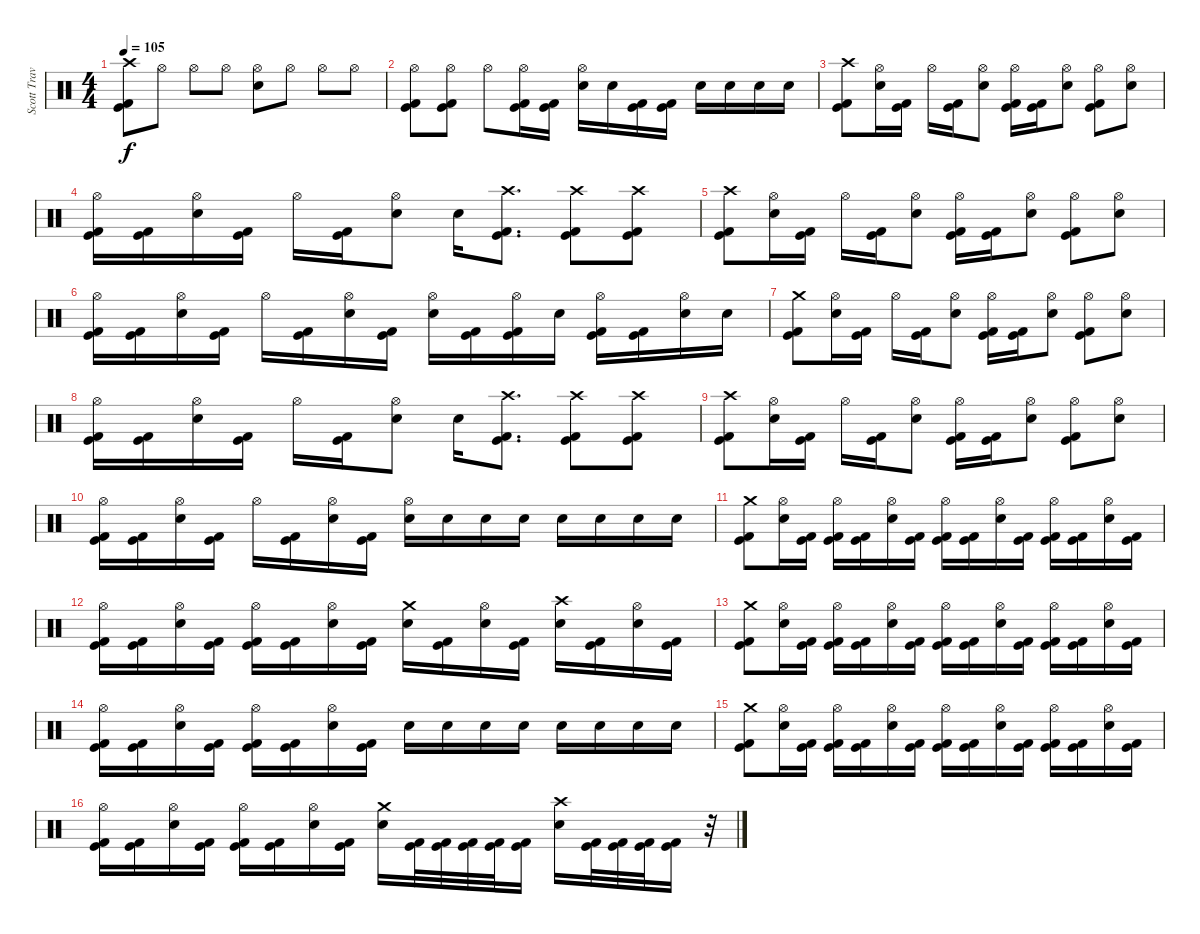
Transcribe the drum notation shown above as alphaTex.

\track ("Scott Travis" "Scott Trav") {instrument percussion}
\staff {score}
\articulation defaults
\ts (4 4)
\tempo 105
\clef neutral
\ks c
("Crash high (hit)" "Kick (hit)" "Kick (hit) 2").8{dy f} "Hi-Hat (open)".8 "Hi-Hat (open)".8 "Hi-Hat (open)".8 ("Hi-Hat (open)" "Snare (hit) 2").8 "Hi-Hat (open)".8 "Hi-Hat (open)".8 "Hi-Hat (open)".8 |
("Hi-Hat (open)" "Kick (hit)" "Kick (hit) 2").8 ("Hi-Hat (open)" "Kick (hit)" "Kick (hit) 2").8 "Hi-Hat (open)".8 ("Hi-Hat (open)" "Kick (hit)" "Kick (hit) 2").16 ("Kick (hit)" "Kick (hit) 2").16 ("Hi-Hat (open)" "Snare (hit) 2").16 "Snare (hit) 2".16 ("Kick (hit)" "Kick (hit) 2").16 ("Kick (hit)" "Kick (hit) 2").16 "Snare (hit) 2".16 "Snare (hit) 2".16 "Snare (hit) 2".16 "Snare (hit) 2".16 |
("Crash high (hit)" "Kick (hit) 2" "Kick (hit)").8 ("Hi-Hat (open)" "Snare (hit) 2").16 ("Kick (hit) 2" "Kick (hit)").16 "Hi-Hat (open)".16 ("Kick (hit) 2" "Kick (hit)").16 ("Hi-Hat (open)" "Snare (hit) 2").8 ("Hi-Hat (open)" "Kick (hit) 2" "Kick (hit)").16 ("Kick (hit) 2" "Kick (hit)").16 ("Hi-Hat (open)" "Snare (hit) 2").8 ("Hi-Hat (open)" "Kick (hit) 2" "Kick (hit)").8 ("Hi-Hat (open)" "Snare (hit) 2").8 |
("Hi-Hat (open)" "Kick (hit) 2" "Kick (hit)").16 ("Kick (hit) 2" "Kick (hit)").16 ("Hi-Hat (open)" "Snare (hit) 2").16 ("Kick (hit) 2" "Kick (hit)").16 "Hi-Hat (open)".16 ("Kick (hit) 2" "Kick (hit)").16 ("Hi-Hat (open)" "Snare (hit) 2").8 "Snare (hit) 2".16 ("Crash high (hit)" "Kick (hit)" "Kick (hit) 2").8{d} ("Crash high (hit)" "Kick (hit) 2" "Kick (hit)").8 ("Crash high (hit)" "Kick (hit)" "Kick (hit) 2").8 |
("Crash high (hit)" "Kick (hit) 2" "Kick (hit)").8 ("Hi-Hat (open)" "Snare (hit) 2").16 ("Kick (hit) 2" "Kick (hit)").16 "Hi-Hat (open)".16 ("Kick (hit) 2" "Kick (hit)").16 ("Hi-Hat (open)" "Snare (hit) 2").8 ("Hi-Hat (open)" "Kick (hit) 2" "Kick (hit)").16 ("Kick (hit) 2" "Kick (hit)").16 ("Hi-Hat (open)" "Snare (hit) 2").8 ("Hi-Hat (open)" "Kick (hit) 2" "Kick (hit)").8 ("Hi-Hat (open)" "Snare (hit) 2").8 |
("Hi-Hat (open)" "Kick (hit) 2" "Kick (hit)").16 ("Kick (hit) 2" "Kick (hit)").16 ("Hi-Hat (open)" "Snare (hit) 2").16 ("Kick (hit) 2" "Kick (hit)").16 "Hi-Hat (open)".16 ("Kick (hit) 2" "Kick (hit)").16 ("Hi-Hat (open)" "Snare (hit) 2").16 ("Kick (hit)" "Kick (hit) 2").16 ("Hi-Hat (open)" "Snare (hit) 2").16 ("Kick (hit) 2" "Kick (hit)").16 ("Hi-Hat (open)" "Kick (hit) 2" "Kick (hit)").16 "Snare (hit) 2".16 ("Hi-Hat (open)" "Kick (hit) 2" "Kick (hit)").16 ("Kick (hit) 2" "Kick (hit)").16 ("Hi-Hat (open)" "Snare (hit) 2").16 "Snare (hit) 2".16 |
("Crash medium (hit)" "Kick (hit) 2" "Kick (hit)").8 ("Hi-Hat (open)" "Snare (hit) 2").16 ("Kick (hit) 2" "Kick (hit)").16 "Hi-Hat (open)".16 ("Kick (hit) 2" "Kick (hit)").16 ("Hi-Hat (open)" "Snare (hit) 2").8 ("Hi-Hat (open)" "Kick (hit) 2" "Kick (hit)").16 ("Kick (hit) 2" "Kick (hit)").16 ("Hi-Hat (open)" "Snare (hit) 2").8 ("Hi-Hat (open)" "Kick (hit) 2" "Kick (hit)").8 ("Hi-Hat (open)" "Snare (hit) 2").8 |
("Hi-Hat (open)" "Kick (hit) 2" "Kick (hit)").16 ("Kick (hit) 2" "Kick (hit)").16 ("Hi-Hat (open)" "Snare (hit) 2").16 ("Kick (hit) 2" "Kick (hit)").16 "Hi-Hat (open)".16 ("Kick (hit) 2" "Kick (hit)").16 ("Hi-Hat (open)" "Snare (hit) 2").8 "Snare (hit) 2".16 ("Crash high (hit)" "Kick (hit)" "Kick (hit) 2").8{d} ("Crash high (hit)" "Kick (hit) 2" "Kick (hit)").8 ("Crash high (hit)" "Kick (hit)" "Kick (hit) 2").8 |
("Crash high (hit)" "Kick (hit) 2" "Kick (hit)").8 ("Hi-Hat (open)" "Snare (hit) 2").16 ("Kick (hit) 2" "Kick (hit)").16 "Hi-Hat (open)".16 ("Kick (hit) 2" "Kick (hit)").16 ("Hi-Hat (open)" "Snare (hit) 2").8 ("Hi-Hat (open)" "Kick (hit) 2" "Kick (hit)").16 ("Kick (hit) 2" "Kick (hit)").16 ("Hi-Hat (open)" "Snare (hit) 2").8 ("Hi-Hat (open)" "Kick (hit) 2" "Kick (hit)").8 ("Hi-Hat (open)" "Snare (hit) 2").8 |
("Hi-Hat (open)" "Kick (hit) 2" "Kick (hit)").16 ("Kick (hit) 2" "Kick (hit)").16 ("Hi-Hat (open)" "Snare (hit) 2").16 ("Kick (hit) 2" "Kick (hit)").16 "Hi-Hat (open)".16 ("Kick (hit) 2" "Kick (hit)").16 ("Hi-Hat (open)" "Snare (hit) 2").16 ("Kick (hit)" "Kick (hit) 2").16 ("Hi-Hat (open)" "Snare (hit) 2").16 "Snare (hit) 2".16 "Snare (hit) 2".16 "Snare (hit) 2".16 "Snare (hit) 2".16 "Snare (hit) 2".16 "Snare (hit) 2".16 "Snare (hit) 2".16 |
("Crash medium (hit)" "Kick (hit)" "Kick (hit) 2").8 ("Hi-Hat (open)" "Snare (hit) 2").16 ("Kick (hit) 2" "Kick (hit)").16 ("Hi-Hat (open)" "Kick (hit) 2" "Kick (hit)").16 ("Kick (hit) 2" "Kick (hit)").16 ("Hi-Hat (open)" "Snare (hit) 2").16 ("Kick (hit) 2" "Kick (hit)").16 ("Hi-Hat (open)" "Kick (hit) 2" "Kick (hit)").16 ("Kick (hit) 2" "Kick (hit)").16 ("Hi-Hat (open)" "Snare (hit) 2").16 ("Kick (hit) 2" "Kick (hit)").16 ("Hi-Hat (open)" "Kick (hit) 2" "Kick (hit)").16 ("Kick (hit) 2" "Kick (hit)").16 ("Hi-Hat (open)" "Snare (hit) 2").16 ("Kick (hit) 2" "Kick (hit)").16 |
("Hi-Hat (open)" "Kick (hit) 2" "Kick (hit)").16 ("Kick (hit) 2" "Kick (hit)").16 ("Hi-Hat (open)" "Snare (hit) 2").16 ("Kick (hit) 2" "Kick (hit)").16 ("Hi-Hat (open)" "Kick (hit) 2" "Kick (hit)").16 ("Kick (hit) 2" "Kick (hit)").16 ("Hi-Hat (open)" "Snare (hit) 2").16 ("Kick (hit) 2" "Kick (hit)").16 ("Crash medium (hit)" "Snare (hit) 2").16 ("Kick (hit) 2" "Kick (hit)").16 ("Hi-Hat (open)" "Snare (hit) 2").16 ("Kick (hit) 2" "Kick (hit)").16 ("Crash high (hit)" "Snare (hit) 2").16 ("Kick (hit) 2" "Kick (hit)").16 ("Hi-Hat (open)" "Snare (hit) 2").16 ("Kick (hit) 2" "Kick (hit)").16 |
("Crash medium (hit)" "Kick (hit)" "Kick (hit) 2").8 ("Hi-Hat (open)" "Snare (hit) 2").16 ("Kick (hit) 2" "Kick (hit)").16 ("Hi-Hat (open)" "Kick (hit) 2" "Kick (hit)").16 ("Kick (hit) 2" "Kick (hit)").16 ("Hi-Hat (open)" "Snare (hit) 2").16 ("Kick (hit) 2" "Kick (hit)").16 ("Hi-Hat (open)" "Kick (hit) 2" "Kick (hit)").16 ("Kick (hit) 2" "Kick (hit)").16 ("Hi-Hat (open)" "Snare (hit) 2").16 ("Kick (hit) 2" "Kick (hit)").16 ("Hi-Hat (open)" "Kick (hit) 2" "Kick (hit)").16 ("Kick (hit) 2" "Kick (hit)").16 ("Hi-Hat (open)" "Snare (hit) 2").16 ("Kick (hit) 2" "Kick (hit)").16 |
("Hi-Hat (open)" "Kick (hit) 2" "Kick (hit)").16 ("Kick (hit) 2" "Kick (hit)").16 ("Hi-Hat (open)" "Snare (hit) 2").16 ("Kick (hit) 2" "Kick (hit)").16 ("Hi-Hat (open)" "Kick (hit) 2" "Kick (hit)").16 ("Kick (hit) 2" "Kick (hit)").16 ("Hi-Hat (open)" "Snare (hit) 2").16 ("Kick (hit) 2" "Kick (hit)").16 "Snare (hit) 2".16 "Snare (hit) 2".16 "Snare (hit) 2".16 "Snare (hit) 2".16 "Snare (hit) 2".16 "Snare (hit) 2".16 "Snare (hit) 2".16 "Snare (hit) 2".16 |
("Crash medium (hit)" "Kick (hit)" "Kick (hit) 2").8 ("Hi-Hat (open)" "Snare (hit) 2").16 ("Kick (hit) 2" "Kick (hit)").16 ("Hi-Hat (open)" "Kick (hit) 2" "Kick (hit)").16 ("Kick (hit) 2" "Kick (hit)").16 ("Hi-Hat (open)" "Snare (hit) 2").16 ("Kick (hit) 2" "Kick (hit)").16 ("Hi-Hat (open)" "Kick (hit) 2" "Kick (hit)").16 ("Kick (hit) 2" "Kick (hit)").16 ("Hi-Hat (open)" "Snare (hit) 2").16 ("Kick (hit) 2" "Kick (hit)").16 ("Hi-Hat (open)" "Kick (hit) 2" "Kick (hit)").16 ("Kick (hit) 2" "Kick (hit)").16 ("Hi-Hat (open)" "Snare (hit) 2").16 ("Kick (hit) 2" "Kick (hit)").16 |
("Hi-Hat (open)" "Kick (hit) 2" "Kick (hit)").16 ("Kick (hit) 2" "Kick (hit)").16 ("Hi-Hat (open)" "Snare (hit) 2").16 ("Kick (hit) 2" "Kick (hit)").16 ("Hi-Hat (open)" "Kick (hit) 2" "Kick (hit)").16 ("Kick (hit) 2" "Kick (hit)").16 ("Hi-Hat (open)" "Snare (hit) 2").16 ("Kick (hit) 2" "Kick (hit)").16 ("Crash medium (hit)" "Snare (hit) 2").16 ("Kick (hit) 2" "Kick (hit)").32 ("Kick (hit) 2" "Kick (hit)").32 ("Kick (hit) 2" "Kick (hit)").32 ("Kick (hit) 2" "Kick (hit)").32 ("Kick (hit) 2" "Kick (hit)").16 ("Crash high (hit)" "Snare (hit) 2").16 ("Kick (hit) 2" "Kick (hit)").32 ("Kick (hit) 2" "Kick (hit)").32 ("Kick (hit) 2" "Kick (hit)").32 ("Kick (hit) 2" "Kick (hit)").16 r.32
